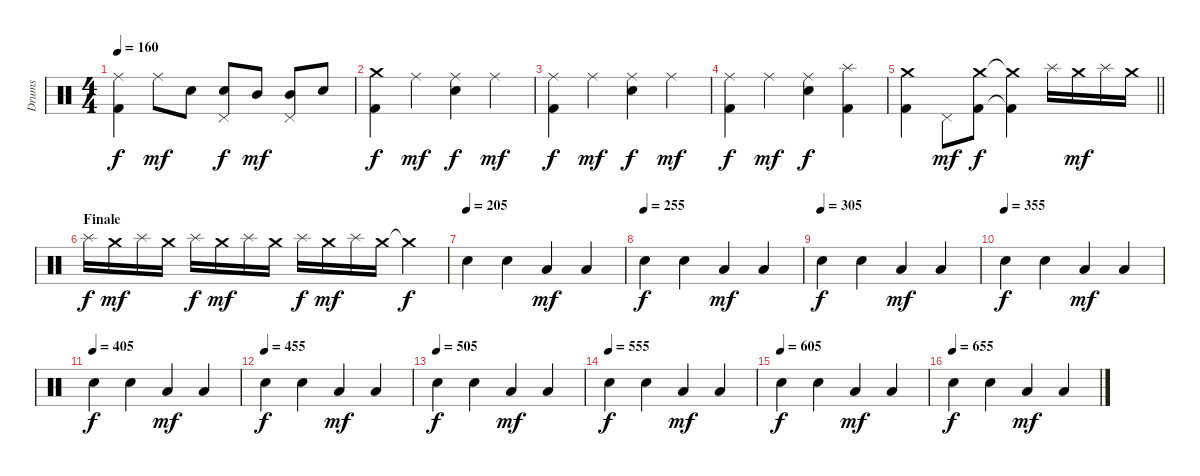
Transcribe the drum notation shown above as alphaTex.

\track ("Drums" "Drums") {instrument percussion}
\staff {score}
\articulation defaults
\ts (4 4)
\tempo 160
\clef neutral
\ks c
("Ride (middle)" "Kick (hit) 2").4{dy f} "Ride (middle)".8{dy mf} "Snare (hit) 2".8 ("Pedal Hi-Hat (hit)" "Snare (hit) 2").8{dy f} "Mid Tom (hit)".8{dy mf} ("Pedal Hi-Hat (hit)" "Mid Tom (hit)").8 "Snare (hit) 2".8 |
("Crash medium (hit)" "Kick (hit) 2").4{dy f} "Ride (middle)".4{dy mf} ("Ride (middle)" "Snare (hit) 2").4{dy f} "Ride (middle)".4{dy mf} |
("Ride (middle)" "Kick (hit) 2").4{dy f} "Ride (middle)".4{dy mf} ("Ride (middle)" "Snare (hit) 2").4{dy f} "Ride (middle)".4{dy mf} |
("Ride (middle)" "Kick (hit) 2").4{dy f} "Ride (middle)".4{dy mf} ("Ride (middle)" "Snare (hit) 2").4{dy f} ("Splash (hit)" "Kick (hit) 2").4 |
\barLineRight lightlight
("Crash medium (hit)" "Kick (hit) 2").4 "Pedal Hi-Hat (hit)".8{dy mf} ("Crash medium (hit)" "Kick (hit) 2").8{dy f} ("Crash medium (hit)"{t} "Kick (hit) 2"{t}).4 "Splash (hit)".16 "Crash medium (hit)".16{dy mf} "Splash (hit)".16 "Crash medium (hit)".16 |
\section ("" "Finale")
"Splash (hit)".16{dy f} "Crash medium (hit)".16{dy mf} "Splash (hit)".16 "Crash medium (hit)".16 "Splash (hit)".16{dy f} "Crash medium (hit)".16{dy mf} "Splash (hit)".16 "Crash medium (hit)".16 "Splash (hit)".16{dy f} "Crash medium (hit)".16{dy mf} "Splash (hit)".16 "Crash medium (hit)".16 "Crash medium (hit)"{t}.4{dy f} |
\tempo (205)
"Snare (hit) 2".4 "Snare (hit) 2".4 "Low Tom (hit)".4{dy mf} "Low Tom (hit)".4 |
\tempo (255)
"Snare (hit) 2".4{dy f} "Snare (hit) 2".4 "Low Tom (hit)".4{dy mf} "Low Tom (hit)".4 |
\tempo (305)
"Snare (hit) 2".4{dy f} "Snare (hit) 2".4 "Low Tom (hit)".4{dy mf} "Low Tom (hit)".4 |
\tempo (355)
"Snare (hit) 2".4{dy f} "Snare (hit) 2".4 "Low Tom (hit)".4{dy mf} "Low Tom (hit)".4 |
\tempo (405)
"Snare (hit) 2".4{dy f} "Snare (hit) 2".4 "Low Tom (hit)".4{dy mf} "Low Tom (hit)".4 |
\tempo (455)
"Snare (hit) 2".4{dy f} "Snare (hit) 2".4 "Low Tom (hit)".4{dy mf} "Low Tom (hit)".4 |
\tempo (505)
"Snare (hit) 2".4{dy f} "Snare (hit) 2".4 "Low Tom (hit)".4{dy mf} "Low Tom (hit)".4 |
\tempo (555)
"Snare (hit) 2".4{dy f} "Snare (hit) 2".4 "Low Tom (hit)".4{dy mf} "Low Tom (hit)".4 |
\tempo (605)
"Snare (hit) 2".4{dy f} "Snare (hit) 2".4 "Low Tom (hit)".4{dy mf} "Low Tom (hit)".4 |
\tempo (655)
"Snare (hit) 2".4{dy f} "Snare (hit) 2".4 "Low Tom (hit)".4{dy mf} "Low Tom (hit)".4
